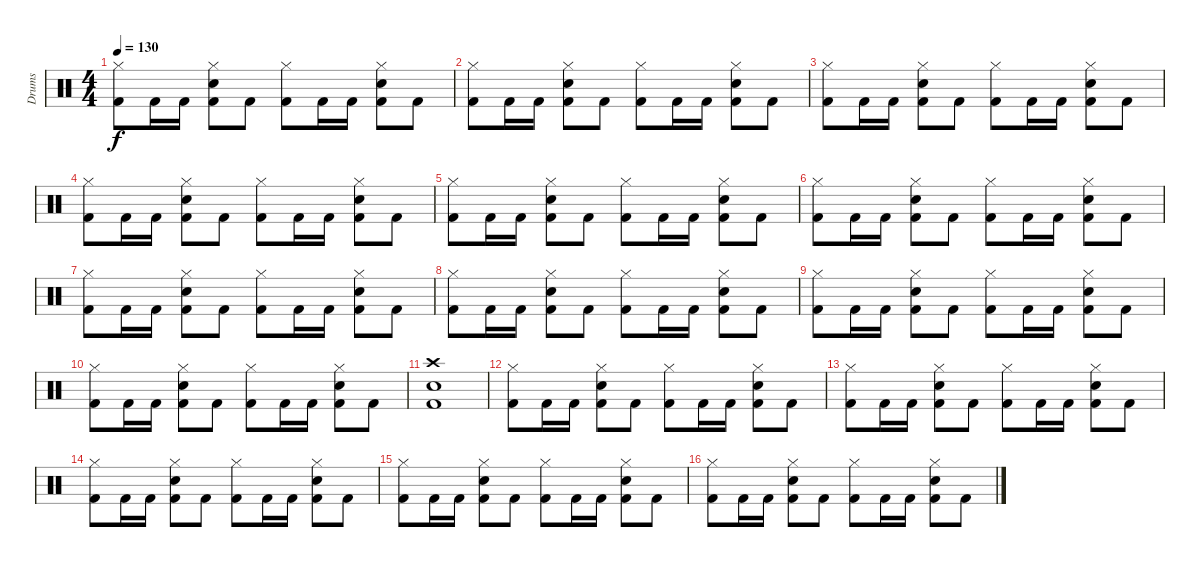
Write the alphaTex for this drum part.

\track ("Drums" "Drums") {instrument percussion}
\staff {score}
\articulation defaults
\ts (4 4)
\tempo 130
\clef neutral
\ks c
("Hi-Hat (closed)" "Kick (hit) 2").8{dy f} "Kick (hit) 2".16 "Kick (hit) 2".16 ("Electric Snare (hit)" "Hi-Hat (closed)" "Kick (hit) 2").8 "Kick (hit) 2".8 ("Hi-Hat (closed)" "Kick (hit) 2").8 "Kick (hit) 2".16 "Kick (hit) 2".16 ("Electric Snare (hit)" "Hi-Hat (closed)" "Kick (hit) 2").8 "Kick (hit) 2".8 |
("Hi-Hat (closed)" "Kick (hit) 2").8 "Kick (hit) 2".16 "Kick (hit) 2".16 ("Electric Snare (hit)" "Hi-Hat (closed)" "Kick (hit) 2").8 "Kick (hit) 2".8 ("Hi-Hat (closed)" "Kick (hit) 2").8 "Kick (hit) 2".16 "Kick (hit) 2".16 ("Electric Snare (hit)" "Hi-Hat (closed)" "Kick (hit) 2").8 "Kick (hit) 2".8 |
("Hi-Hat (closed)" "Kick (hit) 2").8 "Kick (hit) 2".16 "Kick (hit) 2".16 ("Electric Snare (hit)" "Hi-Hat (closed)" "Kick (hit) 2").8 "Kick (hit) 2".8 ("Hi-Hat (closed)" "Kick (hit) 2").8 "Kick (hit) 2".16 "Kick (hit) 2".16 ("Electric Snare (hit)" "Hi-Hat (closed)" "Kick (hit) 2").8 "Kick (hit) 2".8 |
("Hi-Hat (closed)" "Kick (hit) 2").8 "Kick (hit) 2".16 "Kick (hit) 2".16 ("Electric Snare (hit)" "Hi-Hat (closed)" "Kick (hit) 2").8 "Kick (hit) 2".8 ("Hi-Hat (closed)" "Kick (hit) 2").8 "Kick (hit) 2".16 "Kick (hit) 2".16 ("Electric Snare (hit)" "Hi-Hat (closed)" "Kick (hit) 2").8 "Kick (hit) 2".8 |
("Hi-Hat (closed)" "Kick (hit) 2").8 "Kick (hit) 2".16 "Kick (hit) 2".16 ("Electric Snare (hit)" "Hi-Hat (closed)" "Kick (hit) 2").8 "Kick (hit) 2".8 ("Hi-Hat (closed)" "Kick (hit) 2").8 "Kick (hit) 2".16 "Kick (hit) 2".16 ("Electric Snare (hit)" "Hi-Hat (closed)" "Kick (hit) 2").8 "Kick (hit) 2".8 |
("Hi-Hat (closed)" "Kick (hit) 2").8 "Kick (hit) 2".16 "Kick (hit) 2".16 ("Electric Snare (hit)" "Hi-Hat (closed)" "Kick (hit) 2").8 "Kick (hit) 2".8 ("Hi-Hat (closed)" "Kick (hit) 2").8 "Kick (hit) 2".16 "Kick (hit) 2".16 ("Electric Snare (hit)" "Hi-Hat (closed)" "Kick (hit) 2").8 "Kick (hit) 2".8 |
("Hi-Hat (closed)" "Kick (hit) 2").8 "Kick (hit) 2".16 "Kick (hit) 2".16 ("Electric Snare (hit)" "Hi-Hat (closed)" "Kick (hit) 2").8 "Kick (hit) 2".8 ("Hi-Hat (closed)" "Kick (hit) 2").8 "Kick (hit) 2".16 "Kick (hit) 2".16 ("Electric Snare (hit)" "Hi-Hat (closed)" "Kick (hit) 2").8 "Kick (hit) 2".8 |
("Hi-Hat (closed)" "Kick (hit) 2").8 "Kick (hit) 2".16 "Kick (hit) 2".16 ("Electric Snare (hit)" "Hi-Hat (closed)" "Kick (hit) 2").8 "Kick (hit) 2".8 ("Hi-Hat (closed)" "Kick (hit) 2").8 "Kick (hit) 2".16 "Kick (hit) 2".16 ("Electric Snare (hit)" "Hi-Hat (closed)" "Kick (hit) 2").8 "Kick (hit) 2".8 |
("Hi-Hat (closed)" "Kick (hit) 2").8 "Kick (hit) 2".16 "Kick (hit) 2".16 ("Electric Snare (hit)" "Hi-Hat (closed)" "Kick (hit) 2").8 "Kick (hit) 2".8 ("Hi-Hat (closed)" "Kick (hit) 2").8 "Kick (hit) 2".16 "Kick (hit) 2".16 ("Electric Snare (hit)" "Hi-Hat (closed)" "Kick (hit) 2").8 "Kick (hit) 2".8 |
("Hi-Hat (closed)" "Kick (hit) 2").8 "Kick (hit) 2".16 "Kick (hit) 2".16 ("Electric Snare (hit)" "Hi-Hat (closed)" "Kick (hit) 2").8 "Kick (hit) 2".8 ("Hi-Hat (closed)" "Kick (hit) 2").8 "Kick (hit) 2".16 "Kick (hit) 2".16 ("Electric Snare (hit)" "Hi-Hat (closed)" "Kick (hit) 2").8 "Kick (hit) 2".8 |
("Crash high (hit)" "Electric Snare (hit)" "Kick (hit) 2").1 |
("Hi-Hat (closed)" "Kick (hit) 2").8 "Kick (hit) 2".16 "Kick (hit) 2".16 ("Electric Snare (hit)" "Hi-Hat (closed)" "Kick (hit) 2").8 "Kick (hit) 2".8 ("Hi-Hat (closed)" "Kick (hit) 2").8 "Kick (hit) 2".16 "Kick (hit) 2".16 ("Electric Snare (hit)" "Hi-Hat (closed)" "Kick (hit) 2").8 "Kick (hit) 2".8 |
("Hi-Hat (closed)" "Kick (hit) 2").8 "Kick (hit) 2".16 "Kick (hit) 2".16 ("Electric Snare (hit)" "Hi-Hat (closed)" "Kick (hit) 2").8 "Kick (hit) 2".8 ("Hi-Hat (closed)" "Kick (hit) 2").8 "Kick (hit) 2".16 "Kick (hit) 2".16 ("Electric Snare (hit)" "Hi-Hat (closed)" "Kick (hit) 2").8 "Kick (hit) 2".8 |
("Hi-Hat (closed)" "Kick (hit) 2").8 "Kick (hit) 2".16 "Kick (hit) 2".16 ("Electric Snare (hit)" "Hi-Hat (closed)" "Kick (hit) 2").8 "Kick (hit) 2".8 ("Hi-Hat (closed)" "Kick (hit) 2").8 "Kick (hit) 2".16 "Kick (hit) 2".16 ("Electric Snare (hit)" "Hi-Hat (closed)" "Kick (hit) 2").8 "Kick (hit) 2".8 |
("Hi-Hat (closed)" "Kick (hit) 2").8 "Kick (hit) 2".16 "Kick (hit) 2".16 ("Electric Snare (hit)" "Hi-Hat (closed)" "Kick (hit) 2").8 "Kick (hit) 2".8 ("Hi-Hat (closed)" "Kick (hit) 2").8 "Kick (hit) 2".16 "Kick (hit) 2".16 ("Electric Snare (hit)" "Hi-Hat (closed)" "Kick (hit) 2").8 "Kick (hit) 2".8 |
("Hi-Hat (closed)" "Kick (hit) 2").8 "Kick (hit) 2".16 "Kick (hit) 2".16 ("Electric Snare (hit)" "Hi-Hat (closed)" "Kick (hit) 2").8 "Kick (hit) 2".8 ("Hi-Hat (closed)" "Kick (hit) 2").8 "Kick (hit) 2".16 "Kick (hit) 2".16 ("Electric Snare (hit)" "Hi-Hat (closed)" "Kick (hit) 2").8 "Kick (hit) 2".8
